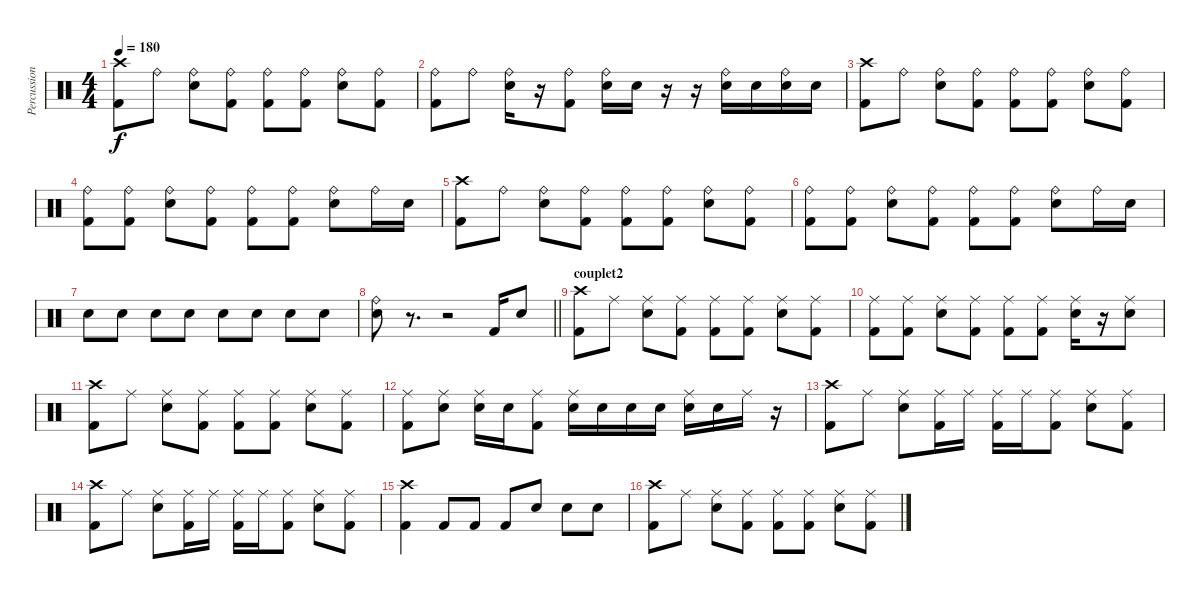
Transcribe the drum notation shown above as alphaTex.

\track ("Percussions" "Percussion") {instrument percussion}
\staff {score}
\articulation defaults
\ts (4 4)
\tempo 180
\clef neutral
\ks c
("Crash high (hit)" "Kick (hit) 2").8{dy f} "Ride (bell)".8 ("Ride (bell)" "Snare (hit) 2").8 ("Ride (bell)" "Kick (hit) 2").8 ("Ride (bell)" "Kick (hit) 2").8 ("Ride (bell)" "Kick (hit) 2").8 ("Ride (bell)" "Snare (hit) 2").8 ("Ride (bell)" "Kick (hit) 2").8 |
("Ride (bell)" "Kick (hit) 2").8 "Ride (bell)".8 ("Ride (bell)" "Snare (hit) 2").16 r.16 ("Ride (bell)" "Kick (hit) 2").8 ("Ride (bell)" "Snare (hit) 2").16 "Snare (hit) 2".16 r.16 r.16 ("Ride (bell)" "Snare (hit) 2").16 "Snare (hit) 2".16 ("Ride (bell)" "Snare (hit) 2").16 "Snare (hit) 2".16 |
("Crash high (hit)" "Kick (hit) 2").8 "Ride (bell)".8 ("Ride (bell)" "Snare (hit) 2").8 ("Ride (bell)" "Kick (hit) 2").8 ("Ride (bell)" "Kick (hit) 2").8 ("Ride (bell)" "Kick (hit) 2").8 ("Ride (bell)" "Snare (hit) 2").8 ("Ride (bell)" "Kick (hit) 2").8 |
("Ride (bell)" "Kick (hit) 2").8 ("Ride (bell)" "Kick (hit) 2").8 ("Ride (bell)" "Snare (hit) 2").8 ("Ride (bell)" "Kick (hit) 2").8 ("Ride (bell)" "Kick (hit) 2").8 ("Ride (bell)" "Kick (hit) 2").8 ("Ride (bell)" "Snare (hit) 2").8 "Ride (bell)".16 "Snare (hit) 2".16 |
("Crash high (hit)" "Kick (hit) 2").8 "Ride (bell)".8 ("Ride (bell)" "Snare (hit) 2").8 ("Ride (bell)" "Kick (hit) 2").8 ("Ride (bell)" "Kick (hit) 2").8 ("Ride (bell)" "Kick (hit) 2").8 ("Ride (bell)" "Snare (hit) 2").8 ("Ride (bell)" "Kick (hit) 2").8 |
("Ride (bell)" "Kick (hit) 2").8 ("Ride (bell)" "Kick (hit) 2").8 ("Ride (bell)" "Snare (hit) 2").8 ("Ride (bell)" "Kick (hit) 2").8 ("Ride (bell)" "Kick (hit) 2").8 ("Ride (bell)" "Kick (hit) 2").8 ("Ride (bell)" "Snare (hit) 2").8 "Ride (bell)".16 "Snare (hit) 2".16 |
"Snare (hit) 2".8 "Snare (hit) 2".8 "Snare (hit) 2".8 "Snare (hit) 2".8 "Snare (hit) 2".8 "Snare (hit) 2".8 "Snare (hit) 2".8 "Snare (hit) 2".8 |
\barLineRight lightlight
("Ride (bell)" "Snare (hit) 2").8 r.8{d} r.2 "Kick (hit) 2".16 "Snare (hit) 2".8 |
\section ("" "couplet2")
("Crash high (hit)" "Kick (hit) 2").8 "Ride (middle)".8 ("Ride (middle)" "Snare (hit) 2").8 ("Ride (middle)" "Kick (hit) 2").8 ("Ride (middle)" "Kick (hit) 2").8 ("Ride (middle)" "Kick (hit) 2").8 ("Ride (middle)" "Snare (hit) 2").8 ("Ride (middle)" "Kick (hit) 2").8 |
("Ride (middle)" "Kick (hit) 2").8 ("Ride (middle)" "Kick (hit) 2").8 ("Ride (middle)" "Snare (hit) 2").8 ("Ride (middle)" "Kick (hit) 2").8 ("Ride (middle)" "Kick (hit) 2").8 ("Ride (middle)" "Kick (hit) 2").8 ("Ride (middle)" "Snare (hit) 2").16 r.16 ("Ride (middle)" "Snare (hit) 2").8 |
("Crash high (hit)" "Kick (hit) 2").8 "Ride (middle)".8 ("Ride (middle)" "Snare (hit) 2").8 ("Ride (middle)" "Kick (hit) 2").8 ("Ride (middle)" "Kick (hit) 2").8 ("Ride (middle)" "Kick (hit) 2").8 ("Ride (middle)" "Snare (hit) 2").8 ("Ride (middle)" "Kick (hit) 2").8 |
("Ride (middle)" "Kick (hit) 2").8 ("Ride (middle)" "Snare (hit) 2").8 ("Ride (middle)" "Snare (hit) 2").16 "Snare (hit) 2".16 ("Ride (middle)" "Kick (hit) 2").8 ("Ride (middle)" "Snare (hit) 2").16 "Snare (hit) 2".16 "Snare (hit) 2".16 "Snare (hit) 2".16 ("Ride (middle)" "Snare (hit) 2").16 "Snare (hit) 2".16 "Ride (middle)".16 r.16 |
("Crash high (hit)" "Kick (hit) 2").8 "Ride (middle)".8 ("Ride (middle)" "Snare (hit) 2").8 ("Ride (middle)" "Kick (hit) 2").16 "Ride (middle)".16 ("Ride (middle)" "Kick (hit) 2").16 "Ride (middle)".16 ("Ride (middle)" "Kick (hit) 2").8 ("Ride (middle)" "Snare (hit) 2").8 ("Ride (middle)" "Kick (hit) 2").8 |
("Crash high (hit)" "Kick (hit) 2").8 "Ride (middle)".8 ("Ride (middle)" "Snare (hit) 2").8 ("Ride (middle)" "Kick (hit) 2").16 "Ride (middle)".16 ("Ride (middle)" "Kick (hit) 2").16 "Ride (middle)".16 ("Ride (middle)" "Kick (hit) 2").8 ("Ride (middle)" "Snare (hit) 2").8 ("Ride (middle)" "Kick (hit) 2").8 |
("Crash high (hit)" "Kick (hit) 2").4 "Kick (hit) 2".8 "Kick (hit) 2".8 "Kick (hit) 2".8 "Snare (hit) 2".8 "Snare (hit) 2".8 "Snare (hit) 2".8 |
("Crash high (hit)" "Kick (hit) 2").8 "Ride (middle)".8 ("Ride (middle)" "Snare (hit) 2").8 ("Ride (middle)" "Kick (hit) 2").8 ("Ride (middle)" "Kick (hit) 2").8 ("Ride (middle)" "Kick (hit) 2").8 ("Ride (middle)" "Snare (hit) 2").8 ("Ride (middle)" "Kick (hit) 2").8
